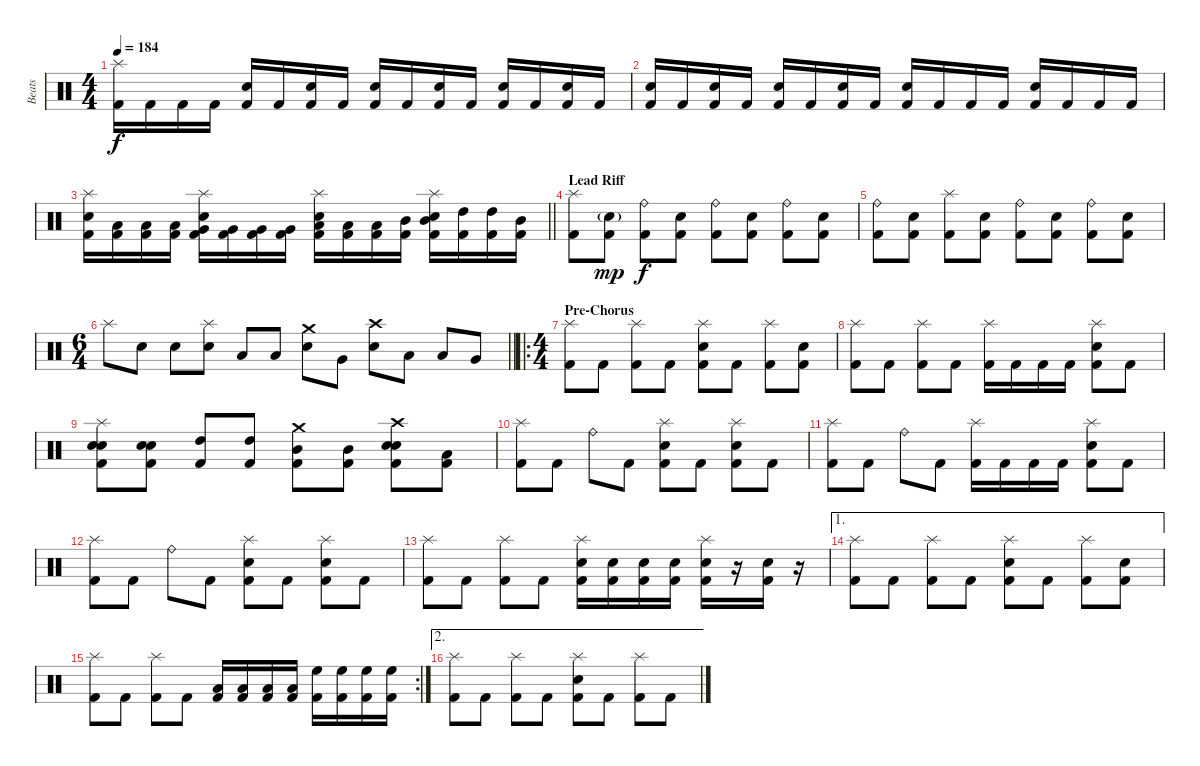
\track ("Beats" "Beats") {instrument percussion}
\staff {score}
\articulation defaults
\ts (4 4)
\tempo 184
\clef neutral
\ks c
("Splash (hit)" "Kick (hit) 2").16{dy f} "Kick (hit) 2".16 "Kick (hit) 2".16 "Kick (hit) 2".16 ("Electric Snare (hit)" "Kick (hit) 2").16 "Kick (hit) 2".16 ("Electric Snare (hit)" "Kick (hit) 2").16 "Kick (hit) 2".16 ("Electric Snare (hit)" "Kick (hit) 2").16 "Kick (hit) 2".16 ("Electric Snare (hit)" "Kick (hit) 2").16 "Kick (hit) 2".16 ("Electric Snare (hit)" "Kick (hit) 2").16 "Kick (hit) 2".16 ("Electric Snare (hit)" "Kick (hit) 2").16 "Kick (hit) 2".16 |
("Electric Snare (hit)" "Kick (hit) 2").16 "Kick (hit) 2".16 ("Electric Snare (hit)" "Kick (hit) 2").16 "Kick (hit) 2".16 ("Electric Snare (hit)" "Kick (hit) 2").16 "Kick (hit) 2".16 ("Electric Snare (hit)" "Kick (hit) 2").16 "Kick (hit) 2".16 ("Electric Snare (hit)" "Kick (hit) 2").16 "Kick (hit) 2".16 "Kick (hit) 2".16 "Kick (hit) 2".16 ("Electric Snare (hit)" "Kick (hit) 2").16 "Kick (hit) 2".16 "Kick (hit) 2".16 "Kick (hit) 2".16 |
\barLineRight lightlight
("Splash (hit)" "Electric Snare (hit)" "Kick (hit) 2").16 ("Low Tom (hit)" "Kick (hit) 2").16 ("Low Tom (hit)" "Kick (hit) 2").16 ("Low Tom (hit)" "Kick (hit) 2").16 ("Splash (hit)" "Very Low Tom (hit)" "Electric Snare (hit)" "Kick (hit) 2").16 ("Very Low Tom (hit)" "Kick (hit) 2").16 ("Very Low Tom (hit)" "Kick (hit) 2").16 ("Very Low Tom (hit)" "Kick (hit) 2").16 ("Splash (hit)" "Low Floor Tom (hit)" "Electric Snare (hit)" "Kick (hit) 2").16 ("Low Floor Tom (hit)" "Kick (hit) 2").16 ("Low Floor Tom (hit)" "Kick (hit) 2").16 ("Mid Tom (hit)" "Kick (hit) 2").16 ("Splash (hit)" "Mid Tom (hit)" "Electric Snare (hit)" "Kick (hit) 2").16 ("High Tom (hit)" "Kick (hit) 2").16 ("High Tom (hit)" "Kick (hit) 2").16 ("Mid Tom (hit)" "Kick (hit) 2").16 |
\section ("" "Lead Riff")
("Splash (hit)" "Kick (hit) 2").8 ("Electric Snare (hit)"{g} "Kick (hit) 2").8{dy mp} ("Ride (bell)" "Kick (hit) 2").8{dy f} ("Electric Snare (hit)" "Kick (hit) 2").8 ("Ride (bell)" "Kick (hit) 2").8 ("Electric Snare (hit)" "Kick (hit) 2").8 ("Ride (bell)" "Kick (hit) 2").8 ("Electric Snare (hit)" "Kick (hit) 2").8 |
("Ride (bell)" "Kick (hit) 2").8 ("Electric Snare (hit)" "Kick (hit) 2").8 ("Splash (hit)" "Kick (hit) 2").8 ("Electric Snare (hit)" "Kick (hit) 2").8 ("Ride (bell)" "Kick (hit) 2").8 ("Electric Snare (hit)" "Kick (hit) 2").8 ("Ride (bell)" "Kick (hit) 2").8 ("Electric Snare (hit)" "Kick (hit) 2").8 |
\ts (6 4)
\barLineRight lightlight "Splash (hit)".8 "Electric Snare (hit)".8 "Electric Snare (hit)".8
("Splash (hit)" "Electric Snare (hit)").8 "Low Tom (hit)".8 "Low Tom (hit)".8 ("Crash medium (hit)" "Electric Snare (hit)").8 "Very Low Tom (hit)".8 ("Crash high (hit)" "Electric Snare (hit)").8 "Low Tom (hit)".8 "Low Tom (hit)".8 "Very Low Tom (hit)".8 |
\ro
\ts (4 4)
\section ("" "Pre-Chorus")
("Splash (hit)" "Kick (hit) 2").8 "Kick (hit) 2".8 ("Splash (hit)" "Kick (hit) 2").8 "Kick (hit) 2".8 ("Splash (hit)" "Electric Snare (hit)" "Kick (hit) 2").8 "Kick (hit) 2".8 ("Splash (hit)" "Kick (hit) 2").8 ("Electric Snare (hit)" "Kick (hit) 2").8 |
("Splash (hit)" "Kick (hit) 2").8 "Kick (hit) 2".8 ("Splash (hit)" "Kick (hit) 2").8 "Kick (hit) 2".8 ("Splash (hit)" "Kick (hit) 2").16 "Kick (hit) 2".16 "Kick (hit) 2".16 "Kick (hit) 2".16 ("Splash (hit)" "Electric Snare (hit)" "Kick (hit) 2").8 "Kick (hit) 2".8 |
("Splash (hit)" "Electric Snare (hit)" "Electric Snare (hit)" "Kick (hit) 2").8{bd 60} ("Electric Snare (hit)" "Electric Snare (hit)" "Kick (hit) 2").8{bd 60} ("High Tom (hit)" "Kick (hit) 2").8 ("High Tom (hit)" "Kick (hit) 2").8 ("Crash medium (hit)" "Mid Tom (hit)" "Kick (hit) 2").8 ("Mid Tom (hit)" "Kick (hit) 2").8 ("Crash high (hit)" "Electric Snare (hit)" "Electric Snare (hit)" "Kick (hit) 2").8 ("Low Tom (hit)" "Kick (hit) 2").8 |
("Splash (hit)" "Kick (hit) 2").8 "Kick (hit) 2".8 "Ride (bell)".8 "Kick (hit) 2".8 ("Splash (hit)" "Electric Snare (hit)" "Kick (hit) 2").8 "Kick (hit) 2".8 ("Splash (hit)" "Electric Snare (hit)" "Kick (hit) 2").8 "Kick (hit) 2".8 |
("Splash (hit)" "Kick (hit) 2").8 "Kick (hit) 2".8 "Ride (bell)".8 "Kick (hit) 2".8 ("Splash (hit)" "Kick (hit) 2").16 "Kick (hit) 2".16 "Kick (hit) 2".16 "Kick (hit) 2".16 ("Splash (hit)" "Electric Snare (hit)" "Kick (hit) 2").8 "Kick (hit) 2".8 |
("Splash (hit)" "Kick (hit) 2").8 "Kick (hit) 2".8 "Ride (bell)".8 "Kick (hit) 2".8 ("Splash (hit)" "Electric Snare (hit)" "Kick (hit) 2").8 "Kick (hit) 2".8 ("Splash (hit)" "Electric Snare (hit)" "Kick (hit) 2").8 "Kick (hit) 2".8 |
("Splash (hit)" "Kick (hit) 2").8 "Kick (hit) 2".8 ("Splash (hit)" "Kick (hit) 2").8 "Kick (hit) 2".8 ("Splash (hit)" "Electric Snare (hit)" "Kick (hit) 2").16 ("Electric Snare (hit)" "Kick (hit) 2").16 ("Electric Snare (hit)" "Kick (hit) 2").16 ("Electric Snare (hit)" "Kick (hit) 2").16 ("Splash (hit)" "Electric Snare (hit)" "Kick (hit) 2").16 r.16 ("Electric Snare (hit)" "Kick (hit) 2").16 r.16 |
\ae 1
("Splash (hit)" "Kick (hit) 2").8 "Kick (hit) 2".8 ("Splash (hit)" "Kick (hit) 2").8 "Kick (hit) 2".8 ("Splash (hit)" "Electric Snare (hit)" "Kick (hit) 2").8 "Kick (hit) 2".8 ("Splash (hit)" "Kick (hit) 2").8 ("Electric Snare (hit)" "Kick (hit) 2").8 |
\rc 2
("Splash (hit)" "Kick (hit) 2").8 "Kick (hit) 2".8 ("Splash (hit)" "Kick (hit) 2").8 "Kick (hit) 2".8 ("Low Floor Tom (hit)" "Kick (hit) 2").16 ("Low Floor Tom (hit)" "Kick (hit) 2").16 ("Low Floor Tom (hit)" "Kick (hit) 2").16 ("Low Floor Tom (hit)" "Kick (hit) 2").16 ("High Floor Tom (hit)" "Kick (hit) 2").16 ("High Floor Tom (hit)" "Kick (hit) 2").16 ("High Floor Tom (hit)" "Kick (hit) 2").16 ("High Floor Tom (hit)" "Kick (hit) 2").16 |
\ae 2
("Splash (hit)" "Kick (hit) 2").8 "Kick (hit) 2".8 ("Splash (hit)" "Kick (hit) 2").8 "Kick (hit) 2".8 ("Splash (hit)" "Electric Snare (hit)" "Kick (hit) 2").8 "Kick (hit) 2".8 ("Splash (hit)" "Kick (hit) 2").8 "Kick (hit) 2".8
